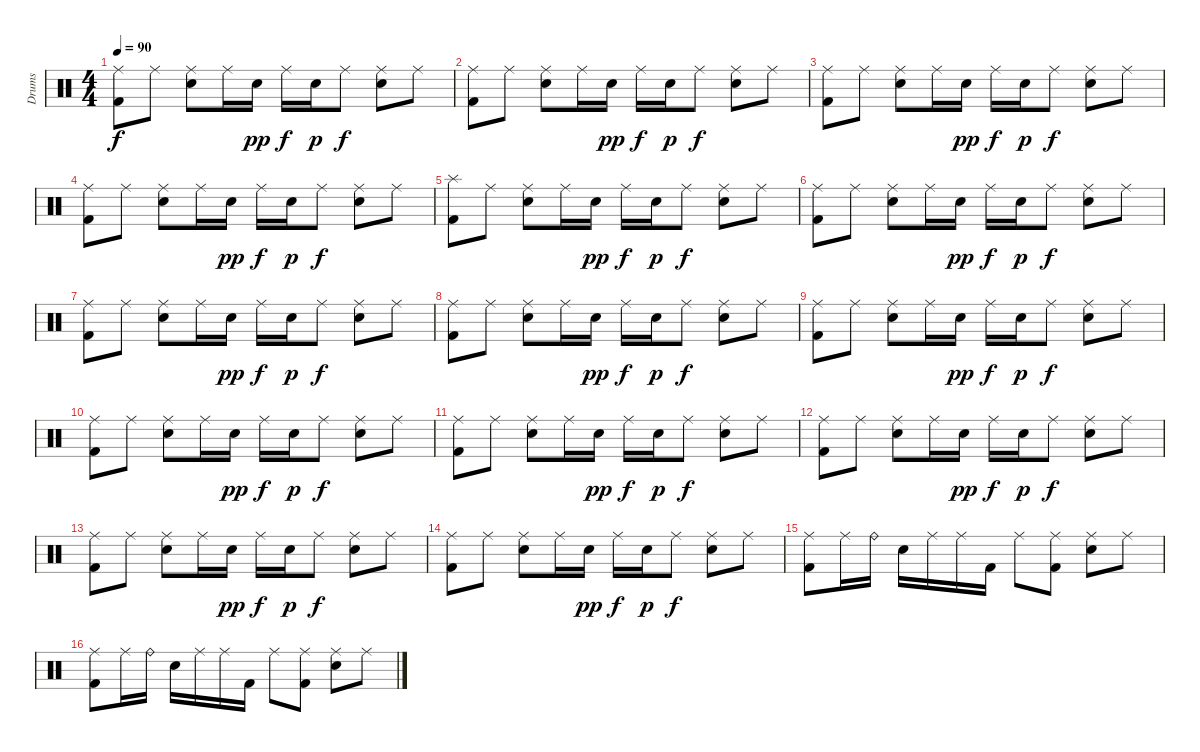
\track ("Drums" "Drums") {instrument percussion}
\staff {score}
\articulation defaults
\ts (4 4)
\tempo 90
\clef neutral
\ks c
("Ride (middle)" "Kick (hit) 2").8{dy f} "Ride (middle)".8 ("Ride (middle)" "Electric Snare (hit)").8 "Ride (middle)".16 "Electric Snare (hit)".16{dy pp} "Ride (middle)".16{dy f} "Electric Snare (hit)".16{dy p} "Ride (middle)".8{dy f} ("Ride (middle)" "Electric Snare (hit)").8 "Ride (middle)".8 |
("Ride (middle)" "Kick (hit) 2").8 "Ride (middle)".8 ("Ride (middle)" "Electric Snare (hit)").8 "Ride (middle)".16 "Electric Snare (hit)".16{dy pp} "Ride (middle)".16{dy f} "Electric Snare (hit)".16{dy p} "Ride (middle)".8{dy f} ("Ride (middle)" "Electric Snare (hit)").8 "Ride (middle)".8 |
("Ride (middle)" "Kick (hit) 2").8 "Ride (middle)".8 ("Ride (middle)" "Electric Snare (hit)").8 "Ride (middle)".16 "Electric Snare (hit)".16{dy pp} "Ride (middle)".16{dy f} "Electric Snare (hit)".16{dy p} "Ride (middle)".8{dy f} ("Ride (middle)" "Electric Snare (hit)").8 "Ride (middle)".8 |
("Ride (middle)" "Kick (hit) 2").8 "Ride (middle)".8 ("Ride (middle)" "Electric Snare (hit)").8 "Ride (middle)".16 "Electric Snare (hit)".16{dy pp} "Ride (middle)".16{dy f} "Electric Snare (hit)".16{dy p} "Ride (middle)".8{dy f} ("Ride (middle)" "Electric Snare (hit)").8 "Ride (middle)".8 |
("Splash (hit)" "Kick (hit) 2").8 "Ride (middle)".8 ("Ride (middle)" "Electric Snare (hit)").8 "Ride (middle)".16 "Electric Snare (hit)".16{dy pp} "Ride (middle)".16{dy f} "Electric Snare (hit)".16{dy p} "Ride (middle)".8{dy f} ("Ride (middle)" "Electric Snare (hit)").8 "Ride (middle)".8 |
("Ride (middle)" "Kick (hit) 2").8 "Ride (middle)".8 ("Ride (middle)" "Electric Snare (hit)").8 "Ride (middle)".16 "Electric Snare (hit)".16{dy pp} "Ride (middle)".16{dy f} "Electric Snare (hit)".16{dy p} "Ride (middle)".8{dy f} ("Ride (middle)" "Electric Snare (hit)").8 "Ride (middle)".8 |
("Ride (middle)" "Kick (hit) 2").8 "Ride (middle)".8 ("Ride (middle)" "Electric Snare (hit)").8 "Ride (middle)".16 "Electric Snare (hit)".16{dy pp} "Ride (middle)".16{dy f} "Electric Snare (hit)".16{dy p} "Ride (middle)".8{dy f} ("Ride (middle)" "Electric Snare (hit)").8 "Ride (middle)".8 |
("Ride (middle)" "Kick (hit) 2").8 "Ride (middle)".8 ("Ride (middle)" "Electric Snare (hit)").8 "Ride (middle)".16 "Electric Snare (hit)".16{dy pp} "Ride (middle)".16{dy f} "Electric Snare (hit)".16{dy p} "Ride (middle)".8{dy f} ("Ride (middle)" "Electric Snare (hit)").8 "Ride (middle)".8 |
("Ride (middle)" "Kick (hit) 2").8 "Ride (middle)".8 ("Ride (middle)" "Electric Snare (hit)").8 "Ride (middle)".16 "Electric Snare (hit)".16{dy pp} "Ride (middle)".16{dy f} "Electric Snare (hit)".16{dy p} "Ride (middle)".8{dy f} ("Ride (middle)" "Electric Snare (hit)").8 "Ride (middle)".8 |
("Ride (middle)" "Kick (hit) 2").8 "Ride (middle)".8 ("Ride (middle)" "Electric Snare (hit)").8 "Ride (middle)".16 "Electric Snare (hit)".16{dy pp} "Ride (middle)".16{dy f} "Electric Snare (hit)".16{dy p} "Ride (middle)".8{dy f} ("Ride (middle)" "Electric Snare (hit)").8 "Ride (middle)".8 |
("Ride (middle)" "Kick (hit) 2").8 "Ride (middle)".8 ("Ride (middle)" "Electric Snare (hit)").8 "Ride (middle)".16 "Electric Snare (hit)".16{dy pp} "Ride (middle)".16{dy f} "Electric Snare (hit)".16{dy p} "Ride (middle)".8{dy f} ("Ride (middle)" "Electric Snare (hit)").8 "Ride (middle)".8 |
("Ride (middle)" "Kick (hit) 2").8 "Ride (middle)".8 ("Ride (middle)" "Electric Snare (hit)").8 "Ride (middle)".16 "Electric Snare (hit)".16{dy pp} "Ride (middle)".16{dy f} "Electric Snare (hit)".16{dy p} "Ride (middle)".8{dy f} ("Ride (middle)" "Electric Snare (hit)").8 "Ride (middle)".8 |
("Ride (middle)" "Kick (hit) 2").8 "Ride (middle)".8 ("Ride (middle)" "Electric Snare (hit)").8 "Ride (middle)".16 "Electric Snare (hit)".16{dy pp} "Ride (middle)".16{dy f} "Electric Snare (hit)".16{dy p} "Ride (middle)".8{dy f} ("Ride (middle)" "Electric Snare (hit)").8 "Ride (middle)".8 |
("Ride (middle)" "Kick (hit) 2").8 "Ride (middle)".8 ("Ride (middle)" "Electric Snare (hit)").8 "Ride (middle)".16 "Electric Snare (hit)".16{dy pp} "Ride (middle)".16{dy f} "Electric Snare (hit)".16{dy p} "Ride (middle)".8{dy f} ("Ride (middle)" "Electric Snare (hit)").8 "Ride (middle)".8 |
("Ride (middle)" "Kick (hit) 2").8 "Ride (middle)".16 "Ride (bell)".16 "Electric Snare (hit)".16 "Ride (middle)".16 "Ride (middle)".16 "Kick (hit) 2".16 "Ride (middle)".8 ("Ride (middle)" "Kick (hit) 2").8 ("Ride (middle)" "Electric Snare (hit)").8 "Ride (middle)".8 |
("Ride (middle)" "Kick (hit) 2").8 "Ride (middle)".16 "Ride (bell)".16 "Electric Snare (hit)".16 "Ride (middle)".16 "Ride (middle)".16 "Kick (hit) 2".16 "Ride (middle)".8 ("Ride (middle)" "Kick (hit) 2").8 ("Ride (middle)" "Electric Snare (hit)").8 "Ride (middle)".8
